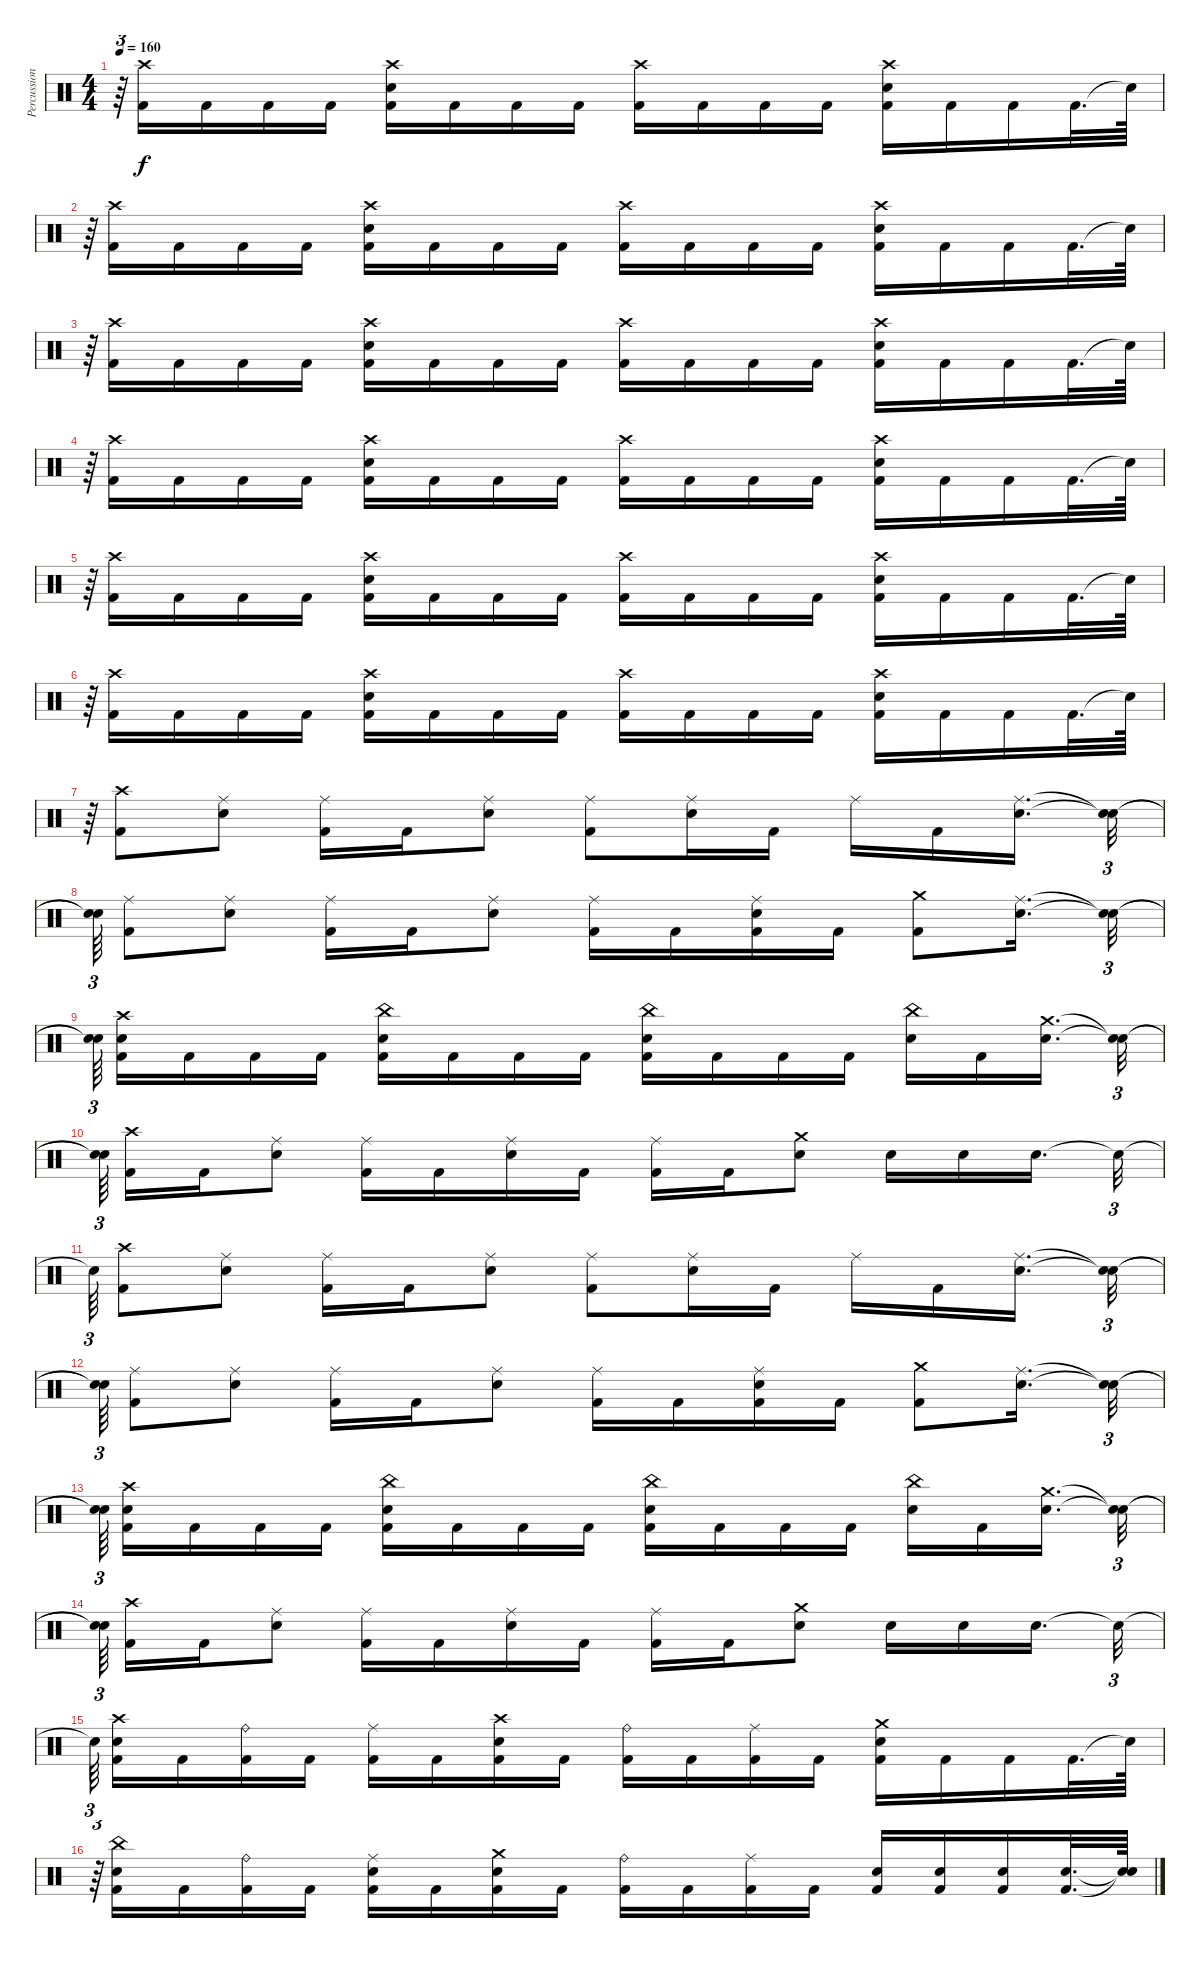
\track ("Percussion" "Percussion") {instrument percussion}
\staff {score}
\articulation defaults
\ts (4 4)
\tempo 160
\clef neutral
\ks c
r.64{tu (3 2) dy f} ("Crash high (hit)" "Kick (hit) 2").16 "Kick (hit) 2".16 "Kick (hit) 2".16 "Kick (hit) 2".16 ("Crash high (hit)" "Electric Snare (hit)" "Kick (hit) 2").16 "Kick (hit) 2".16 "Kick (hit) 2".16 "Kick (hit) 2".16 ("Crash high (hit)" "Kick (hit) 2").16 "Kick (hit) 2".16 "Kick (hit) 2".16 "Kick (hit) 2".16 ("Crash high (hit)" "Electric Snare (hit)" "Kick (hit) 2").16 "Kick (hit) 2".16 "Kick (hit) 2".16 "Kick (hit) 2".32{d} "Snare (hit)"{t}.64 |
r.64{tu (3 2)} ("Crash high (hit)" "Kick (hit) 2").16 "Kick (hit) 2".16 "Kick (hit) 2".16 "Kick (hit) 2".16 ("Crash high (hit)" "Electric Snare (hit)" "Kick (hit) 2").16 "Kick (hit) 2".16 "Kick (hit) 2".16 "Kick (hit) 2".16 ("Crash high (hit)" "Kick (hit) 2").16 "Kick (hit) 2".16 "Kick (hit) 2".16 "Kick (hit) 2".16 ("Crash high (hit)" "Electric Snare (hit)" "Kick (hit) 2").16 "Kick (hit) 2".16 "Kick (hit) 2".16 "Kick (hit) 2".32{d} "Snare (hit)"{t}.64 |
r.64{tu (3 2)} ("Crash high (hit)" "Kick (hit) 2").16 "Kick (hit) 2".16 "Kick (hit) 2".16 "Kick (hit) 2".16 ("Crash high (hit)" "Electric Snare (hit)" "Kick (hit) 2").16 "Kick (hit) 2".16 "Kick (hit) 2".16 "Kick (hit) 2".16 ("Crash high (hit)" "Kick (hit) 2").16 "Kick (hit) 2".16 "Kick (hit) 2".16 "Kick (hit) 2".16 ("Crash high (hit)" "Electric Snare (hit)" "Kick (hit) 2").16 "Kick (hit) 2".16 "Kick (hit) 2".16 "Kick (hit) 2".32{d} "Snare (hit)"{t}.64 |
r.64{tu (3 2)} ("Crash high (hit)" "Kick (hit) 2").16 "Kick (hit) 2".16 "Kick (hit) 2".16 "Kick (hit) 2".16 ("Crash high (hit)" "Electric Snare (hit)" "Kick (hit) 2").16 "Kick (hit) 2".16 "Kick (hit) 2".16 "Kick (hit) 2".16 ("Crash high (hit)" "Kick (hit) 2").16 "Kick (hit) 2".16 "Kick (hit) 2".16 "Kick (hit) 2".16 ("Crash high (hit)" "Electric Snare (hit)" "Kick (hit) 2").16 "Kick (hit) 2".16 "Kick (hit) 2".16 "Kick (hit) 2".32{d} "Snare (hit)"{t}.64 |
r.64{tu (3 2)} ("Crash high (hit)" "Kick (hit) 2").16 "Kick (hit) 2".16 "Kick (hit) 2".16 "Kick (hit) 2".16 ("Crash high (hit)" "Electric Snare (hit)" "Kick (hit) 2").16 "Kick (hit) 2".16 "Kick (hit) 2".16 "Kick (hit) 2".16 ("Crash high (hit)" "Kick (hit) 2").16 "Kick (hit) 2".16 "Kick (hit) 2".16 "Kick (hit) 2".16 ("Crash high (hit)" "Electric Snare (hit)" "Kick (hit) 2").16 "Kick (hit) 2".16 "Kick (hit) 2".16 "Kick (hit) 2".32{d} "Snare (hit)"{t}.64 |
r.64{tu (3 2)} ("Crash high (hit)" "Kick (hit) 2").16 "Kick (hit) 2".16 "Kick (hit) 2".16 "Kick (hit) 2".16 ("Crash high (hit)" "Electric Snare (hit)" "Kick (hit) 2").16 "Kick (hit) 2".16 "Kick (hit) 2".16 "Kick (hit) 2".16 ("Crash high (hit)" "Kick (hit) 2").16 "Kick (hit) 2".16 "Kick (hit) 2".16 "Kick (hit) 2".16 ("Crash high (hit)" "Electric Snare (hit)" "Kick (hit) 2").16 "Kick (hit) 2".16 "Kick (hit) 2".16 "Kick (hit) 2".32{d} "Snare (hit)"{t}.64 |
r.64{tu (3 2)} ("Crash high (hit)" "Kick (hit) 2").8 ("Ride (middle)" "Electric Snare (hit)").8 ("Ride (middle)" "Kick (hit) 2").16 "Kick (hit) 2".16 ("Ride (middle)" "Electric Snare (hit)").8 ("Ride (middle)" "Kick (hit) 2").8 ("Ride (middle)" "Electric Snare (hit)").16 "Kick (hit) 2".16 "Ride (middle)".16 "Kick (hit) 2".16 ("Ride (middle)" "Electric Snare (hit)").16{d} ("Snare (hit)"{t} "Snare (hit)"{t}).32{tu (3 2)} |
("Snare (hit)"{t} "Snare (hit)"{t}).64{tu (3 2)} ("Ride (middle)" "Kick (hit) 2").8 ("Ride (middle)" "Electric Snare (hit)").8 ("Ride (middle)" "Kick (hit) 2").16 "Kick (hit) 2".16 ("Ride (middle)" "Electric Snare (hit)").8 ("Ride (middle)" "Kick (hit) 2").16 "Kick (hit) 2".16 ("Ride (middle)" "Electric Snare (hit)" "Kick (hit) 2").16 "Kick (hit) 2".16 ("Crash medium (hit)" "Kick (hit) 2").8 ("Ride (middle)" "Electric Snare (hit)").16{d} ("Snare (hit)"{t} "Snare (hit)"{t}).32{tu (3 2)} |
("Snare (hit)"{t} "Snare (hit)"{t}).64{tu (3 2)} ("Crash high (hit)" "Electric Snare (hit)" "Kick (hit) 2").16 "Kick (hit) 2".16 "Kick (hit) 2".16 "Kick (hit) 2".16 ("China (hit)" "Electric Snare (hit)" "Kick (hit) 2").16 "Kick (hit) 2".16 "Kick (hit) 2".16 "Kick (hit) 2".16 ("China (hit)" "Electric Snare (hit)" "Kick (hit) 2").16 "Kick (hit) 2".16 "Kick (hit) 2".16 "Kick (hit) 2".16 ("China (hit)" "Electric Snare (hit)").16 "Kick (hit) 2".16 ("Crash medium (hit)" "Electric Snare (hit)").16{d} ("Snare (hit)"{t} "Snare (hit)"{t}).32{tu (3 2)} |
("Snare (hit)"{t} "Snare (hit)"{t}).64{tu (3 2)} ("Crash high (hit)" "Kick (hit) 2").16 "Kick (hit) 2".16 ("Ride (middle)" "Electric Snare (hit)").8 ("Ride (middle)" "Kick (hit) 2").16 "Kick (hit) 2".16 ("Ride (middle)" "Electric Snare (hit)").16 "Kick (hit) 2".16 ("Ride (middle)" "Kick (hit) 2").16 "Kick (hit) 2".16 ("Crash medium (hit)" "Electric Snare (hit)").8 "Electric Snare (hit)".16 "Electric Snare (hit)".16 "Electric Snare (hit)".16{d} "Snare (hit)"{t}.32{tu (3 2)} |
"Snare (hit)"{t}.64{tu (3 2)} ("Crash high (hit)" "Kick (hit) 2").8 ("Ride (middle)" "Electric Snare (hit)").8 ("Ride (middle)" "Kick (hit) 2").16 "Kick (hit) 2".16 ("Ride (middle)" "Electric Snare (hit)").8 ("Ride (middle)" "Kick (hit) 2").8 ("Ride (middle)" "Electric Snare (hit)").16 "Kick (hit) 2".16 "Ride (middle)".16 "Kick (hit) 2".16 ("Ride (middle)" "Electric Snare (hit)").16{d} ("Snare (hit)"{t} "Snare (hit)"{t}).32{tu (3 2)} |
("Snare (hit)"{t} "Snare (hit)"{t}).64{tu (3 2)} ("Ride (middle)" "Kick (hit) 2").8 ("Ride (middle)" "Electric Snare (hit)").8 ("Ride (middle)" "Kick (hit) 2").16 "Kick (hit) 2".16 ("Ride (middle)" "Electric Snare (hit)").8 ("Ride (middle)" "Kick (hit) 2").16 "Kick (hit) 2".16 ("Ride (middle)" "Electric Snare (hit)" "Kick (hit) 2").16 "Kick (hit) 2".16 ("Crash medium (hit)" "Kick (hit) 2").8 ("Ride (middle)" "Electric Snare (hit)").16{d} ("Snare (hit)"{t} "Snare (hit)"{t}).32{tu (3 2)} |
("Snare (hit)"{t} "Snare (hit)"{t}).64{tu (3 2)} ("Crash high (hit)" "Electric Snare (hit)" "Kick (hit) 2").16 "Kick (hit) 2".16 "Kick (hit) 2".16 "Kick (hit) 2".16 ("China (hit)" "Electric Snare (hit)" "Kick (hit) 2").16 "Kick (hit) 2".16 "Kick (hit) 2".16 "Kick (hit) 2".16 ("China (hit)" "Electric Snare (hit)" "Kick (hit) 2").16 "Kick (hit) 2".16 "Kick (hit) 2".16 "Kick (hit) 2".16 ("China (hit)" "Electric Snare (hit)").16 "Kick (hit) 2".16 ("Crash medium (hit)" "Electric Snare (hit)").16{d} ("Snare (hit)"{t} "Snare (hit)"{t}).32{tu (3 2)} |
("Snare (hit)"{t} "Snare (hit)"{t}).64{tu (3 2)} ("Crash high (hit)" "Kick (hit) 2").16 "Kick (hit) 2".16 ("Ride (middle)" "Electric Snare (hit)").8 ("Ride (middle)" "Kick (hit) 2").16 "Kick (hit) 2".16 ("Ride (middle)" "Electric Snare (hit)").16 "Kick (hit) 2".16 ("Ride (middle)" "Kick (hit) 2").16 "Kick (hit) 2".16 ("Crash medium (hit)" "Electric Snare (hit)").8 "Electric Snare (hit)".16 "Electric Snare (hit)".16 "Electric Snare (hit)".16{d} "Snare (hit)"{t}.32{tu (3 2)} |
"Snare (hit)"{t}.64{tu (3 2)} ("Crash high (hit)" "Electric Snare (hit)" "Kick (hit) 2").16 "Kick (hit) 2".16 ("Ride (bell)" "Kick (hit) 2").16 "Kick (hit) 2".16 ("Ride (middle)" "Kick (hit) 2").16 "Kick (hit) 2".16 ("Crash high (hit)" "Electric Snare (hit)" "Kick (hit) 2").16 "Kick (hit) 2".16 ("Ride (bell)" "Kick (hit) 2").16 "Kick (hit) 2".16 ("Ride (middle)" "Kick (hit) 2").16 "Kick (hit) 2".16 ("Crash medium (hit)" "Electric Snare (hit)" "Kick (hit) 2").16 "Kick (hit) 2".16 "Kick (hit) 2".16 "Kick (hit) 2".32{d} "Snare (hit)"{t}.64 |
r.64{tu (3 2)} ("China (hit)" "Electric Snare (hit)" "Kick (hit) 2").16 "Kick (hit) 2".16 ("Ride (bell)" "Kick (hit) 2").16 "Kick (hit) 2".16 ("Ride (middle)" "Electric Snare (hit)" "Kick (hit) 2").16 "Kick (hit) 2".16 ("Crash medium (hit)" "Electric Snare (hit)" "Kick (hit) 2").16 "Kick (hit) 2".16 ("Ride (bell)" "Kick (hit) 2").16 "Kick (hit) 2".16 ("Ride (middle)" "Kick (hit) 2").16 "Kick (hit) 2".16 ("Electric Snare (hit)" "Kick (hit) 2").16 ("Electric Snare (hit)" "Kick (hit) 2").16 ("Electric Snare (hit)" "Kick (hit) 2").16 ("Electric Snare (hit)" "Kick (hit) 2").32{d} ("Snare (hit)"{t} "Snare (hit)"{t}).64
